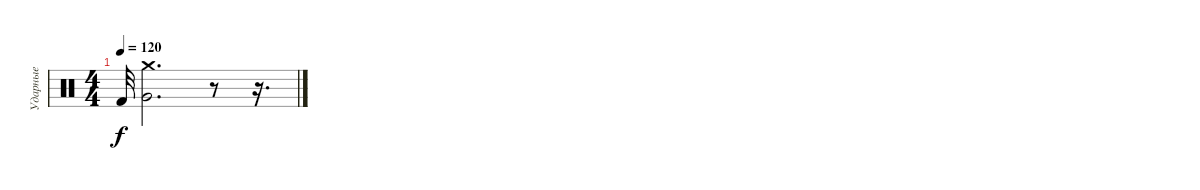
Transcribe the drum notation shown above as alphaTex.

\track ("Ударные" "Ударные") {instrument percussion}
\staff {score}
\articulation defaults
\ts (4 4)
\tempo 120
\clef neutral
\ks c "Kick (hit) 2".32{dy f}
("Crash medium (hit)" "Very Low Tom (hit)").2{d} r.8 r.16{d}
